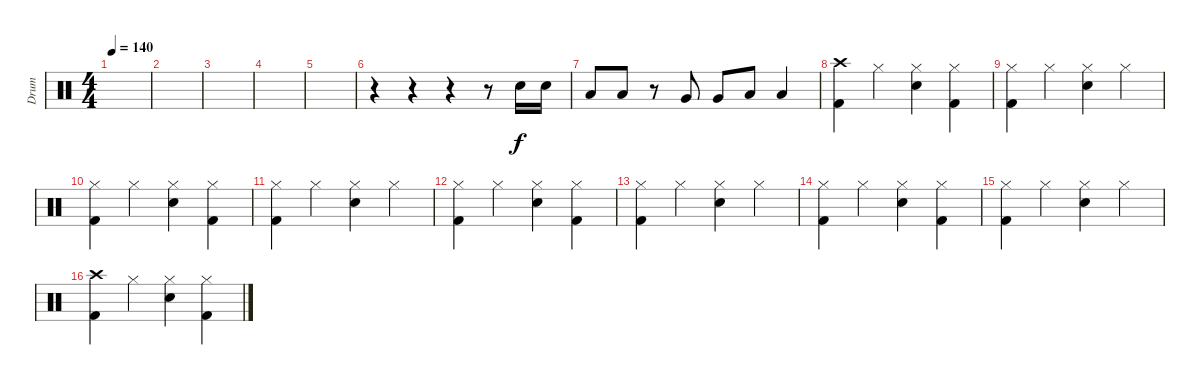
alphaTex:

\track ("Drum" "Drum") {instrument percussion}
\staff {score}
\articulation defaults
\ts (4 4)
\tempo 140
\clef neutral
\ks c
|
|
|
|
|
r.4 r.4 r.4 r.8 "Electric Snare (hit)".16 "Electric Snare (hit)".16 |
"Low Tom (hit)".8 "Low Tom (hit)".8 r.8 "Very Low Tom (hit)".8 "Very Low Tom (hit)".8 "Low Floor Tom (hit)".8 "Low Floor Tom (hit)".4 |
("Crash high (hit)" "Kick (hit) 2").4 "Hi-Hat (closed)".4 ("Hi-Hat (closed)" "Electric Snare (hit)").4 ("Hi-Hat (closed)" "Kick (hit) 2").4 |
("Hi-Hat (closed)" "Kick (hit) 2").4 "Hi-Hat (closed)".4 ("Hi-Hat (closed)" "Electric Snare (hit)").4 "Hi-Hat (closed)".4 |
("Hi-Hat (closed)" "Kick (hit) 2").4 "Hi-Hat (closed)".4 ("Hi-Hat (closed)" "Electric Snare (hit)").4 ("Hi-Hat (closed)" "Kick (hit) 2").4 |
("Hi-Hat (closed)" "Kick (hit) 2").4 "Hi-Hat (closed)".4 ("Hi-Hat (closed)" "Electric Snare (hit)").4 "Hi-Hat (closed)".4 |
("Hi-Hat (closed)" "Kick (hit) 2").4 "Hi-Hat (closed)".4 ("Hi-Hat (closed)" "Electric Snare (hit)").4 ("Hi-Hat (closed)" "Kick (hit) 2").4 |
("Hi-Hat (closed)" "Kick (hit) 2").4 "Hi-Hat (closed)".4 ("Hi-Hat (closed)" "Electric Snare (hit)").4 "Hi-Hat (closed)".4 |
("Hi-Hat (closed)" "Kick (hit) 2").4 "Hi-Hat (closed)".4 ("Hi-Hat (closed)" "Electric Snare (hit)").4 ("Hi-Hat (closed)" "Kick (hit) 2").4 |
("Hi-Hat (closed)" "Kick (hit) 2").4 "Hi-Hat (closed)".4 ("Hi-Hat (closed)" "Electric Snare (hit)").4 "Hi-Hat (closed)".4 |
("Crash high (hit)" "Kick (hit) 2").4 "Hi-Hat (closed)".4 ("Hi-Hat (closed)" "Electric Snare (hit)").4 ("Hi-Hat (closed)" "Kick (hit) 2").4
